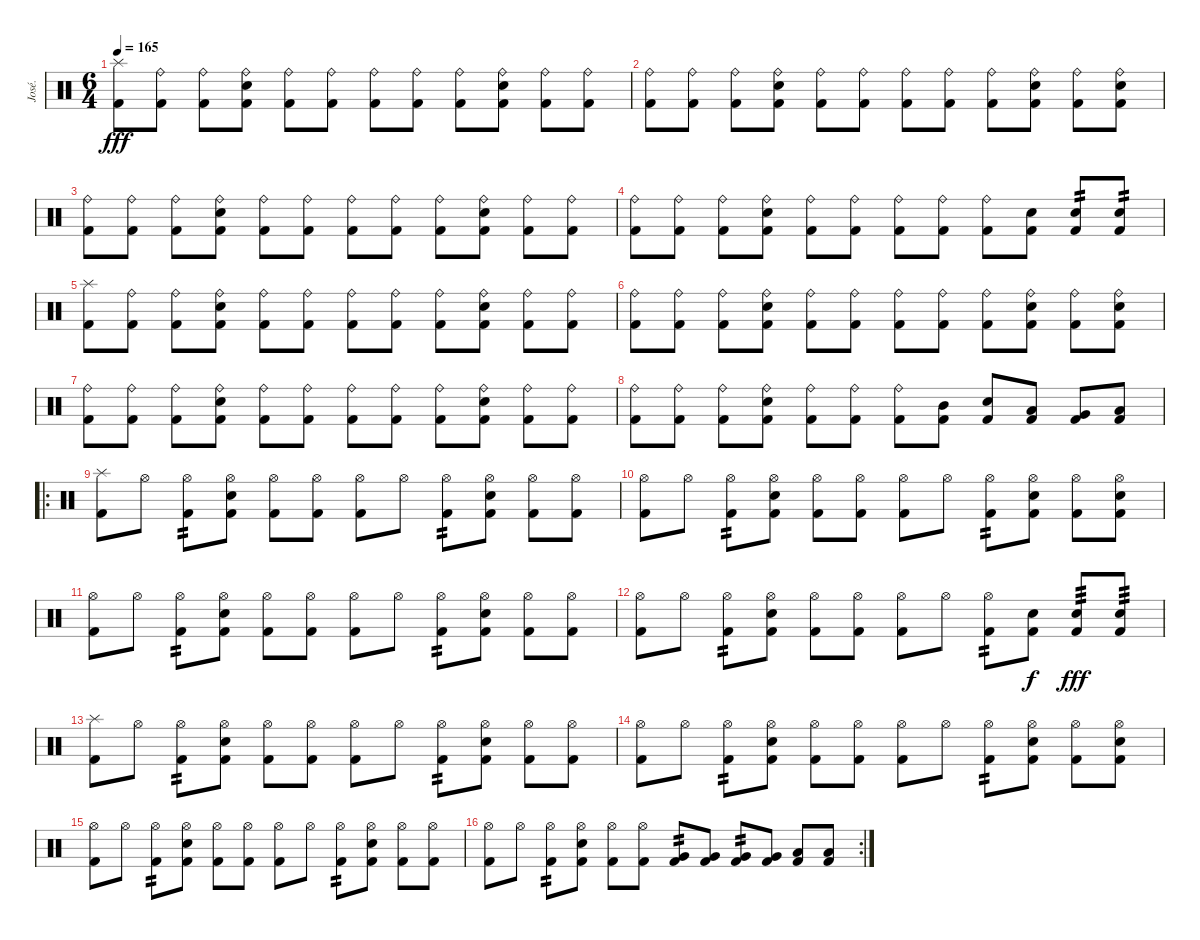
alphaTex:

\track ("José." "José.") {instrument percussion}
\staff {score}
\articulation defaults
\ts (6 4)
\tempo 165
\clef neutral
\ks c
("Kick (hit) 2" "Splash (hit)").8{dy fff} ("Kick (hit) 2" "Ride (bell)").8 ("Kick (hit) 2" "Ride (bell)").8 ("Kick (hit) 2" "Snare (hit) 2" "Ride (bell)").8 ("Kick (hit) 2" "Ride (bell)").8 ("Kick (hit) 2" "Ride (bell)").8 ("Kick (hit) 2" "Ride (bell)").8 ("Kick (hit) 2" "Ride (bell)").8 ("Kick (hit) 2" "Ride (bell)").8 ("Kick (hit) 2" "Snare (hit) 2" "Ride (bell)").8 ("Kick (hit) 2" "Ride (bell)").8 ("Kick (hit) 2" "Ride (bell)").8 |
("Kick (hit) 2" "Ride (bell)").8 ("Kick (hit) 2" "Ride (bell)").8 ("Kick (hit) 2" "Ride (bell)").8 ("Kick (hit) 2" "Snare (hit) 2" "Ride (bell)").8 ("Kick (hit) 2" "Ride (bell)").8 ("Kick (hit) 2" "Ride (bell)").8 ("Kick (hit) 2" "Ride (bell)").8 ("Kick (hit) 2" "Ride (bell)").8 ("Kick (hit) 2" "Ride (bell)").8 ("Kick (hit) 2" "Snare (hit) 2" "Ride (bell)").8 ("Kick (hit) 2" "Ride (bell)").8 ("Kick (hit) 2" "Snare (hit) 2" "Ride (bell)").8 |
("Kick (hit) 2" "Ride (bell)").8 ("Kick (hit) 2" "Ride (bell)").8 ("Kick (hit) 2" "Ride (bell)").8 ("Kick (hit) 2" "Snare (hit) 2" "Ride (bell)").8 ("Kick (hit) 2" "Ride (bell)").8 ("Kick (hit) 2" "Ride (bell)").8 ("Kick (hit) 2" "Ride (bell)").8 ("Kick (hit) 2" "Ride (bell)").8 ("Kick (hit) 2" "Ride (bell)").8 ("Kick (hit) 2" "Snare (hit) 2" "Ride (bell)").8 ("Kick (hit) 2" "Ride (bell)").8 ("Kick (hit) 2" "Ride (bell)").8 |
("Kick (hit) 2" "Ride (bell)").8 ("Kick (hit) 2" "Ride (bell)").8 ("Kick (hit) 2" "Ride (bell)").8 ("Kick (hit) 2" "Snare (hit) 2" "Ride (bell)").8 ("Kick (hit) 2" "Ride (bell)").8 ("Kick (hit) 2" "Ride (bell)").8 ("Kick (hit) 2" "Ride (bell)").8 ("Kick (hit) 2" "Ride (bell)").8 ("Kick (hit) 2" "Ride (bell)").8 ("Kick (hit) 2" "Snare (hit) 2").8 ("Kick (hit) 2" "Snare (hit) 2").8{tp 2} ("Kick (hit) 2" "Snare (hit) 2").8{tp 2} |
("Kick (hit) 2" "Splash (hit)").8 ("Kick (hit) 2" "Ride (bell)").8 ("Kick (hit) 2" "Ride (bell)").8 ("Kick (hit) 2" "Snare (hit) 2" "Ride (bell)").8 ("Kick (hit) 2" "Ride (bell)").8 ("Kick (hit) 2" "Ride (bell)").8 ("Kick (hit) 2" "Ride (bell)").8 ("Kick (hit) 2" "Ride (bell)").8 ("Kick (hit) 2" "Ride (bell)").8 ("Kick (hit) 2" "Snare (hit) 2" "Ride (bell)").8 ("Kick (hit) 2" "Ride (bell)").8 ("Kick (hit) 2" "Ride (bell)").8 |
("Kick (hit) 2" "Ride (bell)").8 ("Kick (hit) 2" "Ride (bell)").8 ("Kick (hit) 2" "Ride (bell)").8 ("Kick (hit) 2" "Snare (hit) 2" "Ride (bell)").8 ("Kick (hit) 2" "Ride (bell)").8 ("Kick (hit) 2" "Ride (bell)").8 ("Kick (hit) 2" "Ride (bell)").8 ("Kick (hit) 2" "Ride (bell)").8 ("Kick (hit) 2" "Ride (bell)").8 ("Kick (hit) 2" "Snare (hit) 2" "Ride (bell)").8 ("Kick (hit) 2" "Ride (bell)").8 ("Kick (hit) 2" "Snare (hit) 2" "Ride (bell)").8 |
("Kick (hit) 2" "Ride (bell)").8 ("Kick (hit) 2" "Ride (bell)").8 ("Kick (hit) 2" "Ride (bell)").8 ("Kick (hit) 2" "Snare (hit) 2" "Ride (bell)").8 ("Kick (hit) 2" "Ride (bell)").8 ("Kick (hit) 2" "Ride (bell)").8 ("Kick (hit) 2" "Ride (bell)").8 ("Kick (hit) 2" "Ride (bell)").8 ("Kick (hit) 2" "Ride (bell)").8 ("Kick (hit) 2" "Snare (hit) 2" "Ride (bell)").8 ("Kick (hit) 2" "Ride (bell)").8 ("Kick (hit) 2" "Ride (bell)").8 |
("Kick (hit) 2" "Ride (bell)").8 ("Kick (hit) 2" "Ride (bell)").8 ("Kick (hit) 2" "Ride (bell)").8 ("Kick (hit) 2" "Snare (hit) 2" "Ride (bell)").8 ("Kick (hit) 2" "Ride (bell)").8 ("Kick (hit) 2" "Ride (bell)").8 ("Kick (hit) 2" "Ride (bell)").8 ("Kick (hit) 2" "Mid Tom (hit)").8 ("Kick (hit) 2" "Snare (hit) 2").8 ("Kick (hit) 2" "Low Tom (hit)").8 ("Kick (hit) 2" "Very Low Tom (hit)").8 ("Kick (hit) 2" "Low Floor Tom (hit)").8 |
\ro
("Kick (hit) 2" "Splash (hit)").8 "Hi-Hat (open)".8 ("Kick (hit) 2" "Hi-Hat (open)").8{tp 2} ("Kick (hit) 2" "Snare (hit) 2" "Hi-Hat (open)").8 ("Kick (hit) 2" "Hi-Hat (open)").8 ("Kick (hit) 2" "Hi-Hat (open)").8 ("Kick (hit) 2" "Hi-Hat (open)").8 "Hi-Hat (open)".8 ("Kick (hit) 2" "Hi-Hat (open)").8{tp 2} ("Kick (hit) 2" "Snare (hit) 2" "Hi-Hat (open)").8 ("Kick (hit) 2" "Hi-Hat (open)").8 ("Kick (hit) 2" "Hi-Hat (open)").8 |
("Kick (hit) 2" "Hi-Hat (open)").8 "Hi-Hat (open)".8 ("Kick (hit) 2" "Hi-Hat (open)").8{tp 2} ("Kick (hit) 2" "Snare (hit) 2" "Hi-Hat (open)").8 ("Kick (hit) 2" "Hi-Hat (open)").8 ("Kick (hit) 2" "Hi-Hat (open)").8 ("Kick (hit) 2" "Hi-Hat (open)").8 "Hi-Hat (open)".8 ("Kick (hit) 2" "Hi-Hat (open)").8{tp 2} ("Kick (hit) 2" "Snare (hit) 2" "Hi-Hat (open)").8 ("Kick (hit) 2" "Hi-Hat (open)").8 ("Kick (hit) 2" "Snare (hit) 2" "Hi-Hat (open)").8 |
("Kick (hit) 2" "Hi-Hat (open)").8 "Hi-Hat (open)".8 ("Kick (hit) 2" "Hi-Hat (open)").8{tp 2} ("Kick (hit) 2" "Snare (hit) 2" "Hi-Hat (open)").8 ("Kick (hit) 2" "Hi-Hat (open)").8 ("Kick (hit) 2" "Hi-Hat (open)").8 ("Kick (hit) 2" "Hi-Hat (open)").8 "Hi-Hat (open)".8 ("Kick (hit) 2" "Hi-Hat (open)").8{tp 2} ("Kick (hit) 2" "Snare (hit) 2" "Hi-Hat (open)").8 ("Kick (hit) 2" "Hi-Hat (open)").8 ("Kick (hit) 2" "Hi-Hat (open)").8 |
("Kick (hit) 2" "Hi-Hat (open)").8 "Hi-Hat (open)".8 ("Kick (hit) 2" "Hi-Hat (open)").8{tp 2} ("Kick (hit) 2" "Snare (hit) 2" "Hi-Hat (open)").8 ("Kick (hit) 2" "Hi-Hat (open)").8 ("Kick (hit) 2" "Hi-Hat (open)").8 ("Kick (hit) 2" "Hi-Hat (open)").8 "Hi-Hat (open)".8 ("Kick (hit) 2" "Hi-Hat (open)").8{tp 2} ("Kick (hit) 2" "Snare (hit) 2").8{dy f} ("Kick (hit) 2" "Snare (hit) 2").8{tp 3 dy fff} ("Kick (hit) 2" "Snare (hit) 2").8{tp 3} |
("Kick (hit) 2" "Splash (hit)").8 "Hi-Hat (open)".8 ("Kick (hit) 2" "Hi-Hat (open)").8{tp 2} ("Kick (hit) 2" "Snare (hit) 2" "Hi-Hat (open)").8 ("Kick (hit) 2" "Hi-Hat (open)").8 ("Kick (hit) 2" "Hi-Hat (open)").8 ("Kick (hit) 2" "Hi-Hat (open)").8 "Hi-Hat (open)".8 ("Kick (hit) 2" "Hi-Hat (open)").8{tp 2} ("Kick (hit) 2" "Snare (hit) 2" "Hi-Hat (open)").8 ("Kick (hit) 2" "Hi-Hat (open)").8 ("Kick (hit) 2" "Hi-Hat (open)").8 |
("Kick (hit) 2" "Hi-Hat (open)").8 "Hi-Hat (open)".8 ("Kick (hit) 2" "Hi-Hat (open)").8{tp 2} ("Kick (hit) 2" "Snare (hit) 2" "Hi-Hat (open)").8 ("Kick (hit) 2" "Hi-Hat (open)").8 ("Kick (hit) 2" "Hi-Hat (open)").8 ("Kick (hit) 2" "Hi-Hat (open)").8 "Hi-Hat (open)".8 ("Kick (hit) 2" "Hi-Hat (open)").8{tp 2} ("Kick (hit) 2" "Snare (hit) 2" "Hi-Hat (open)").8 ("Kick (hit) 2" "Hi-Hat (open)").8 ("Kick (hit) 2" "Snare (hit) 2" "Hi-Hat (open)").8 |
("Kick (hit) 2" "Hi-Hat (open)").8 "Hi-Hat (open)".8 ("Kick (hit) 2" "Hi-Hat (open)").8{tp 2} ("Kick (hit) 2" "Snare (hit) 2" "Hi-Hat (open)").8 ("Kick (hit) 2" "Hi-Hat (open)").8 ("Kick (hit) 2" "Hi-Hat (open)").8 ("Kick (hit) 2" "Hi-Hat (open)").8 "Hi-Hat (open)".8 ("Kick (hit) 2" "Hi-Hat (open)").8{tp 2} ("Kick (hit) 2" "Snare (hit) 2" "Hi-Hat (open)").8 ("Kick (hit) 2" "Hi-Hat (open)").8 ("Kick (hit) 2" "Hi-Hat (open)").8 |
\rc 2
("Kick (hit) 2" "Hi-Hat (open)").8 "Hi-Hat (open)".8 ("Kick (hit) 2" "Hi-Hat (open)").8{tp 2} ("Kick (hit) 2" "Snare (hit) 2" "Hi-Hat (open)").8 ("Kick (hit) 2" "Hi-Hat (open)").8 ("Kick (hit) 2" "Hi-Hat (open)").8 ("Kick (hit) 2" "Very Low Tom (hit)").8{tp 2} ("Kick (hit) 2" "Very Low Tom (hit)").8 ("Kick (hit) 2" "Very Low Tom (hit)").8{tp 2} ("Kick (hit) 2" "Very Low Tom (hit)").8 ("Kick (hit) 2" "Low Floor Tom (hit)").8 ("Kick (hit) 2" "Low Floor Tom (hit)").8
